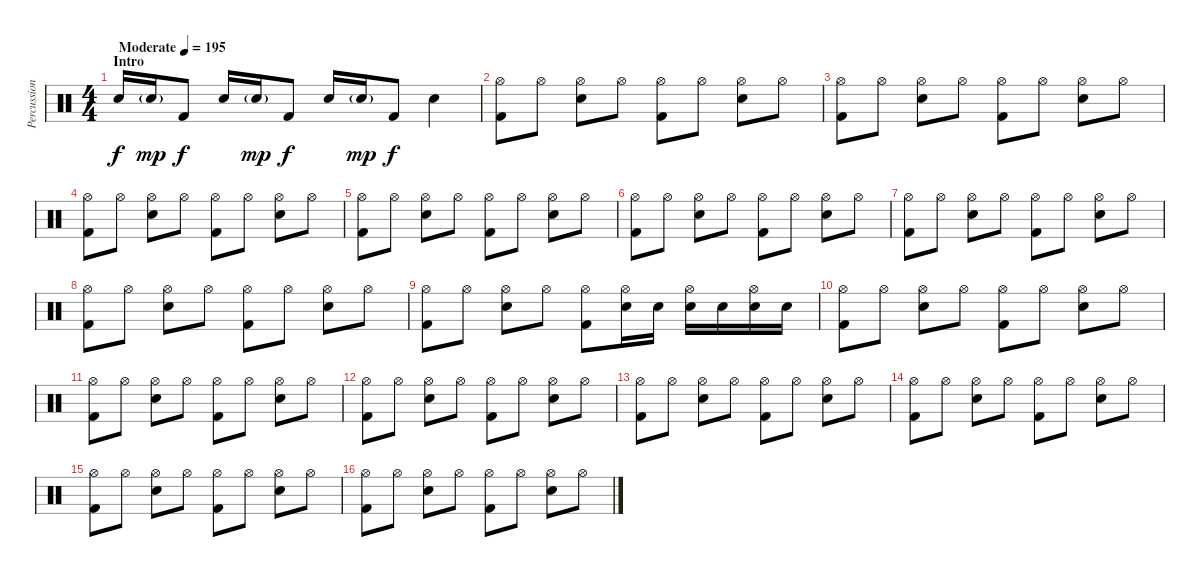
\track ("Percussions" "Percussion") {instrument percussion}
\staff {score}
\articulation defaults
\ts (4 4)
\section ("" "Intro")
\tempo (195 "Moderate")
\clef neutral
\ks c "Electric Snare (hit)".16{dy f} "Electric Snare (hit)"{g}.16{dy mp} "Kick (hit) 2".8{dy f} "Electric Snare (hit)".16 "Electric Snare (hit)"{g}.16{dy mp} "Kick (hit) 2".8{dy f} "Electric Snare (hit)".16 "Electric Snare (hit)"{g}.16{dy mp} "Kick (hit) 2".8{dy f} "Electric Snare (hit)".4
|
("Hi-Hat (open)" "Kick (hit) 2").8 "Hi-Hat (open)".8 ("Hi-Hat (open)" "Electric Snare (hit)").8 "Hi-Hat (open)".8 ("Hi-Hat (open)" "Kick (hit) 2").8 "Hi-Hat (open)".8 ("Hi-Hat (open)" "Electric Snare (hit)").8 "Hi-Hat (open)".8 |
("Hi-Hat (open)" "Kick (hit) 2").8 "Hi-Hat (open)".8 ("Hi-Hat (open)" "Electric Snare (hit)").8 "Hi-Hat (open)".8 ("Hi-Hat (open)" "Kick (hit) 2").8 "Hi-Hat (open)".8 ("Hi-Hat (open)" "Electric Snare (hit)").8 "Hi-Hat (open)".8 |
("Hi-Hat (open)" "Kick (hit) 2").8 "Hi-Hat (open)".8 ("Hi-Hat (open)" "Electric Snare (hit)").8 "Hi-Hat (open)".8 ("Hi-Hat (open)" "Kick (hit) 2").8 "Hi-Hat (open)".8 ("Hi-Hat (open)" "Electric Snare (hit)").8 "Hi-Hat (open)".8 |
("Hi-Hat (open)" "Kick (hit) 2").8 "Hi-Hat (open)".8 ("Hi-Hat (open)" "Electric Snare (hit)").8 "Hi-Hat (open)".8 ("Hi-Hat (open)" "Kick (hit) 2").8 "Hi-Hat (open)".8 ("Hi-Hat (open)" "Electric Snare (hit)").8 "Hi-Hat (open)".8 |
("Hi-Hat (open)" "Kick (hit) 2").8 "Hi-Hat (open)".8 ("Hi-Hat (open)" "Electric Snare (hit)").8 "Hi-Hat (open)".8 ("Hi-Hat (open)" "Kick (hit) 2").8 "Hi-Hat (open)".8 ("Hi-Hat (open)" "Electric Snare (hit)").8 "Hi-Hat (open)".8 |
("Hi-Hat (open)" "Kick (hit) 2").8 "Hi-Hat (open)".8 ("Hi-Hat (open)" "Electric Snare (hit)").8 "Hi-Hat (open)".8 ("Hi-Hat (open)" "Kick (hit) 2").8 "Hi-Hat (open)".8 ("Hi-Hat (open)" "Electric Snare (hit)").8 "Hi-Hat (open)".8 |
("Hi-Hat (open)" "Kick (hit) 2").8 "Hi-Hat (open)".8 ("Hi-Hat (open)" "Electric Snare (hit)").8 "Hi-Hat (open)".8 ("Hi-Hat (open)" "Kick (hit) 2").8 "Hi-Hat (open)".8 ("Hi-Hat (open)" "Electric Snare (hit)").8 "Hi-Hat (open)".8 |
("Hi-Hat (open)" "Kick (hit) 2").8 "Hi-Hat (open)".8 ("Hi-Hat (open)" "Electric Snare (hit)").8 "Hi-Hat (open)".8 ("Hi-Hat (open)" "Kick (hit) 2").8 ("Hi-Hat (open)" "Electric Snare (hit)").16 "Electric Snare (hit)".16 ("Hi-Hat (open)" "Electric Snare (hit)").16 "Electric Snare (hit)".16 ("Hi-Hat (open)" "Electric Snare (hit)").16 "Electric Snare (hit)".16 |
("Hi-Hat (open)" "Kick (hit) 2").8 "Hi-Hat (open)".8 ("Hi-Hat (open)" "Electric Snare (hit)").8 "Hi-Hat (open)".8 ("Hi-Hat (open)" "Kick (hit) 2").8 "Hi-Hat (open)".8 ("Hi-Hat (open)" "Electric Snare (hit)").8 "Hi-Hat (open)".8 |
("Hi-Hat (open)" "Kick (hit) 2").8 "Hi-Hat (open)".8 ("Hi-Hat (open)" "Electric Snare (hit)").8 "Hi-Hat (open)".8 ("Hi-Hat (open)" "Kick (hit) 2").8 "Hi-Hat (open)".8 ("Hi-Hat (open)" "Electric Snare (hit)").8 "Hi-Hat (open)".8 |
("Hi-Hat (open)" "Kick (hit) 2").8 "Hi-Hat (open)".8 ("Hi-Hat (open)" "Electric Snare (hit)").8 "Hi-Hat (open)".8 ("Hi-Hat (open)" "Kick (hit) 2").8 "Hi-Hat (open)".8 ("Hi-Hat (open)" "Electric Snare (hit)").8 "Hi-Hat (open)".8 |
("Hi-Hat (open)" "Kick (hit) 2").8 "Hi-Hat (open)".8 ("Hi-Hat (open)" "Electric Snare (hit)").8 "Hi-Hat (open)".8 ("Hi-Hat (open)" "Kick (hit) 2").8 "Hi-Hat (open)".8 ("Hi-Hat (open)" "Electric Snare (hit)").8 "Hi-Hat (open)".8 |
("Hi-Hat (open)" "Kick (hit) 2").8 "Hi-Hat (open)".8 ("Hi-Hat (open)" "Electric Snare (hit)").8 "Hi-Hat (open)".8 ("Hi-Hat (open)" "Kick (hit) 2").8 "Hi-Hat (open)".8 ("Hi-Hat (open)" "Electric Snare (hit)").8 "Hi-Hat (open)".8 |
("Hi-Hat (open)" "Kick (hit) 2").8 "Hi-Hat (open)".8 ("Hi-Hat (open)" "Electric Snare (hit)").8 "Hi-Hat (open)".8 ("Hi-Hat (open)" "Kick (hit) 2").8 "Hi-Hat (open)".8 ("Hi-Hat (open)" "Electric Snare (hit)").8 "Hi-Hat (open)".8 |
("Hi-Hat (open)" "Kick (hit) 2").8 "Hi-Hat (open)".8 ("Hi-Hat (open)" "Electric Snare (hit)").8 "Hi-Hat (open)".8 ("Hi-Hat (open)" "Kick (hit) 2").8 "Hi-Hat (open)".8 ("Hi-Hat (open)" "Electric Snare (hit)").8 "Hi-Hat (open)".8
